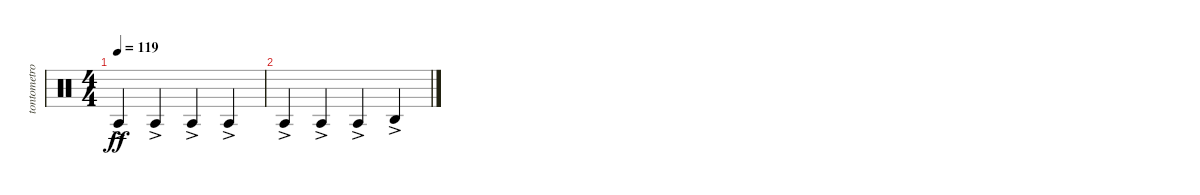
\track ("tontometro" "tontometro") {mute instrument percussion}
\staff {score}
\articulation defaults
\ts (4 4)
\tempo 119
\clef neutral
\ks c "Agogo tow (hit)"{ac}.4{dy ff} "Agogo tow (hit)"{ac}.4 "Agogo tow (hit)"{ac}.4 "Agogo tow (hit)"{ac}.4
|
"Agogo tow (hit)"{ac}.4 "Agogo tow (hit)"{ac}.4 "Agogo tow (hit)"{ac}.4 "Agogo high (hit)"{ac}.4
